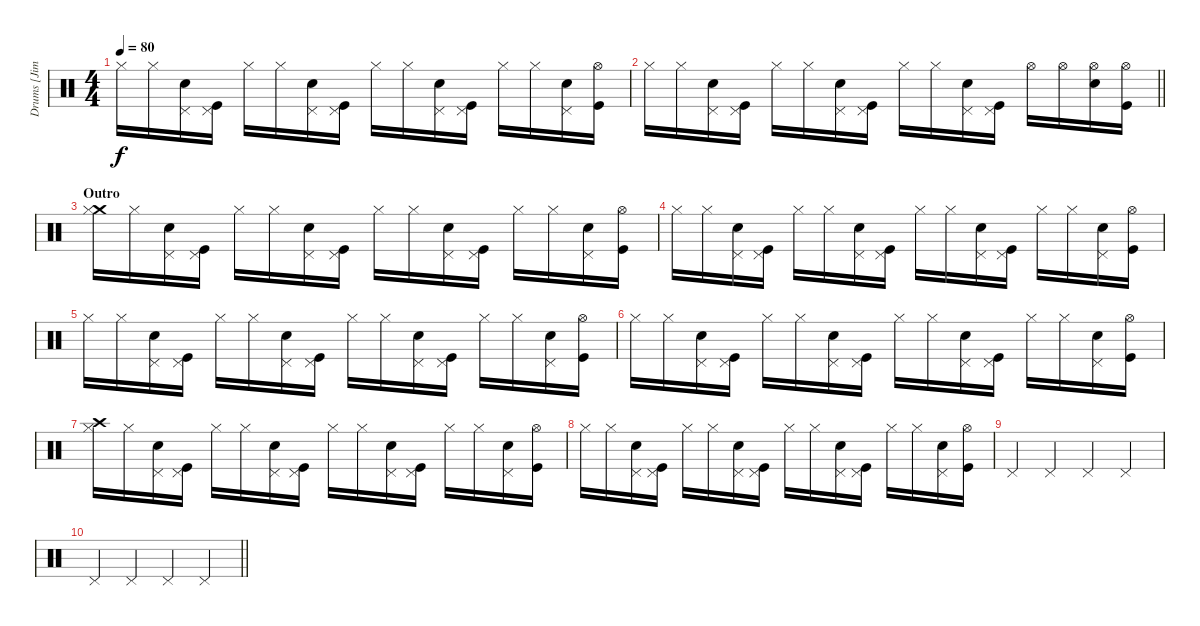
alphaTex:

\track ("Drums [Jim Duguid]" "Drums [Jim") {instrument percussion}
\staff {score}
\articulation defaults
\ts (4 4)
\tempo 80
\clef neutral
\ks c "Hi-Hat (closed)".16{dy f} "Hi-Hat (closed)".16
("Pedal Hi-Hat (hit)" "Snare (hit) 2").16 ("Pedal Hi-Hat (hit)" "Kick (hit)").16 "Hi-Hat (closed)".16 "Hi-Hat (closed)".16 ("Pedal Hi-Hat (hit)" "Snare (hit) 2").16 ("Pedal Hi-Hat (hit)" "Kick (hit)").16 "Hi-Hat (closed)".16 "Hi-Hat (closed)".16 ("Pedal Hi-Hat (hit)" "Snare (hit) 2").16 ("Pedal Hi-Hat (hit)" "Kick (hit)").16 "Hi-Hat (closed)".16 "Hi-Hat (closed)".16 ("Pedal Hi-Hat (hit)" "Snare (hit) 2").16 ("Hi-Hat (open)" "Kick (hit)").16 |
\barLineRight lightlight "Hi-Hat (closed)".16 "Hi-Hat (closed)".16
("Pedal Hi-Hat (hit)" "Snare (hit) 2").16 ("Pedal Hi-Hat (hit)" "Kick (hit)").16 "Hi-Hat (closed)".16 "Hi-Hat (closed)".16 ("Pedal Hi-Hat (hit)" "Snare (hit) 2").16 ("Pedal Hi-Hat (hit)" "Kick (hit)").16 "Hi-Hat (closed)".16 "Hi-Hat (closed)".16 ("Pedal Hi-Hat (hit)" "Snare (hit) 2").16 ("Pedal Hi-Hat (hit)" "Kick (hit)").16 "Hi-Hat (open)".16 "Hi-Hat (open)".16 ("Hi-Hat (open)" "Snare (hit) 2").16 ("Hi-Hat (open)" "Kick (hit)").16 |
\section ("" "Outro")
("Crash medium (hit)" "Hi-Hat (closed)").16 "Hi-Hat (closed)".16 ("Pedal Hi-Hat (hit)" "Snare (hit) 2").16 ("Pedal Hi-Hat (hit)" "Kick (hit)").16 "Hi-Hat (closed)".16 "Hi-Hat (closed)".16 ("Pedal Hi-Hat (hit)" "Snare (hit) 2").16 ("Pedal Hi-Hat (hit)" "Kick (hit)").16 "Hi-Hat (closed)".16 "Hi-Hat (closed)".16 ("Pedal Hi-Hat (hit)" "Snare (hit) 2").16 ("Pedal Hi-Hat (hit)" "Kick (hit)").16 "Hi-Hat (closed)".16 "Hi-Hat (closed)".16 ("Pedal Hi-Hat (hit)" "Snare (hit) 2").16 ("Hi-Hat (open)" "Kick (hit)").16 |
"Hi-Hat (closed)".16 "Hi-Hat (closed)".16 ("Pedal Hi-Hat (hit)" "Snare (hit) 2").16 ("Pedal Hi-Hat (hit)" "Kick (hit)").16 "Hi-Hat (closed)".16 "Hi-Hat (closed)".16 ("Pedal Hi-Hat (hit)" "Snare (hit) 2").16 ("Pedal Hi-Hat (hit)" "Kick (hit)").16 "Hi-Hat (closed)".16 "Hi-Hat (closed)".16 ("Pedal Hi-Hat (hit)" "Snare (hit) 2").16 ("Pedal Hi-Hat (hit)" "Kick (hit)").16 "Hi-Hat (closed)".16 "Hi-Hat (closed)".16 ("Pedal Hi-Hat (hit)" "Snare (hit) 2").16 ("Hi-Hat (open)" "Kick (hit)").16 |
"Hi-Hat (closed)".16 "Hi-Hat (closed)".16 ("Pedal Hi-Hat (hit)" "Snare (hit) 2").16 ("Pedal Hi-Hat (hit)" "Kick (hit)").16 "Hi-Hat (closed)".16 "Hi-Hat (closed)".16 ("Pedal Hi-Hat (hit)" "Snare (hit) 2").16 ("Pedal Hi-Hat (hit)" "Kick (hit)").16 "Hi-Hat (closed)".16 "Hi-Hat (closed)".16 ("Pedal Hi-Hat (hit)" "Snare (hit) 2").16 ("Pedal Hi-Hat (hit)" "Kick (hit)").16 "Hi-Hat (closed)".16 "Hi-Hat (closed)".16 ("Pedal Hi-Hat (hit)" "Snare (hit) 2").16 ("Hi-Hat (open)" "Kick (hit)").16 |
"Hi-Hat (closed)".16 "Hi-Hat (closed)".16 ("Pedal Hi-Hat (hit)" "Snare (hit) 2").16 ("Pedal Hi-Hat (hit)" "Kick (hit)").16 "Hi-Hat (closed)".16 "Hi-Hat (closed)".16 ("Pedal Hi-Hat (hit)" "Snare (hit) 2").16 ("Pedal Hi-Hat (hit)" "Kick (hit)").16 "Hi-Hat (closed)".16 "Hi-Hat (closed)".16 ("Pedal Hi-Hat (hit)" "Snare (hit) 2").16 ("Pedal Hi-Hat (hit)" "Kick (hit)").16 "Hi-Hat (closed)".16 "Hi-Hat (closed)".16 ("Pedal Hi-Hat (hit)" "Snare (hit) 2").16 ("Hi-Hat (open)" "Kick (hit)").16 |
("Crash high (hit)" "Hi-Hat (closed)").16 "Hi-Hat (closed)".16 ("Pedal Hi-Hat (hit)" "Snare (hit) 2").16 ("Pedal Hi-Hat (hit)" "Kick (hit)").16 "Hi-Hat (closed)".16 "Hi-Hat (closed)".16 ("Pedal Hi-Hat (hit)" "Snare (hit) 2").16 ("Pedal Hi-Hat (hit)" "Kick (hit)").16 "Hi-Hat (closed)".16 "Hi-Hat (closed)".16 ("Pedal Hi-Hat (hit)" "Snare (hit) 2").16 ("Pedal Hi-Hat (hit)" "Kick (hit)").16 "Hi-Hat (closed)".16 "Hi-Hat (closed)".16 ("Pedal Hi-Hat (hit)" "Snare (hit) 2").16 ("Hi-Hat (open)" "Kick (hit)").16 |
"Hi-Hat (closed)".16 "Hi-Hat (closed)".16 ("Pedal Hi-Hat (hit)" "Snare (hit) 2").16 ("Pedal Hi-Hat (hit)" "Kick (hit)").16 "Hi-Hat (closed)".16 "Hi-Hat (closed)".16 ("Pedal Hi-Hat (hit)" "Snare (hit) 2").16 ("Pedal Hi-Hat (hit)" "Kick (hit)").16 "Hi-Hat (closed)".16 "Hi-Hat (closed)".16 ("Pedal Hi-Hat (hit)" "Snare (hit) 2").16 ("Pedal Hi-Hat (hit)" "Kick (hit)").16 "Hi-Hat (closed)".16 "Hi-Hat (closed)".16 ("Pedal Hi-Hat (hit)" "Snare (hit) 2").16 ("Hi-Hat (open)" "Kick (hit)").16 |
"Pedal Hi-Hat (hit)".4 "Pedal Hi-Hat (hit)".4 "Pedal Hi-Hat (hit)".4 "Pedal Hi-Hat (hit)".4 |
\barLineRight lightlight "Pedal Hi-Hat (hit)".4 "Pedal Hi-Hat (hit)".4 "Pedal Hi-Hat (hit)".4 "Pedal Hi-Hat (hit)".4
